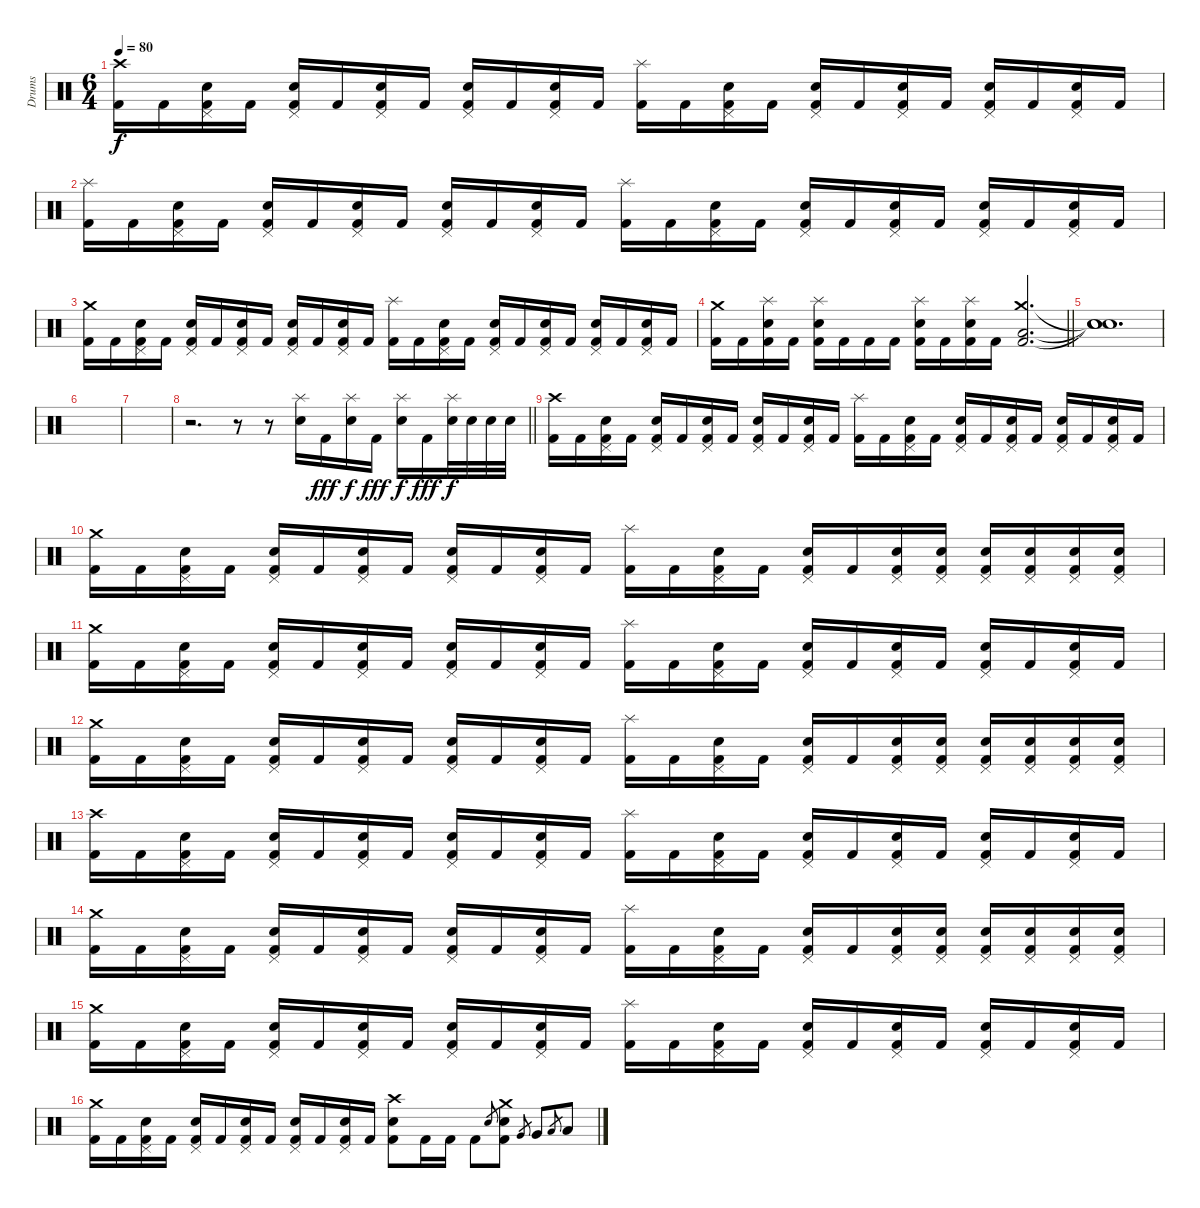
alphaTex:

\track ("Drums" "Drums") {instrument percussion}
\staff {score}
\articulation defaults
\ts (6 4)
\tempo 80
\clef neutral
\ks c
("Crash high (hit)" "Kick (hit) 2").16{dy f} "Kick (hit) 2".16 ("Pedal Hi-Hat (hit)" "Snare (hit) 2" "Kick (hit) 2").16 "Kick (hit) 2".16 ("Pedal Hi-Hat (hit)" "Snare (hit) 2" "Kick (hit) 2").16 "Kick (hit) 2".16 ("Pedal Hi-Hat (hit)" "Snare (hit) 2" "Kick (hit) 2").16 "Kick (hit) 2".16 ("Pedal Hi-Hat (hit)" "Snare (hit) 2" "Kick (hit) 2").16 "Kick (hit) 2".16 ("Pedal Hi-Hat (hit)" "Snare (hit) 2" "Kick (hit) 2").16 "Kick (hit) 2".16 ("Splash (hit)" "Kick (hit) 2").16 "Kick (hit) 2".16 ("Pedal Hi-Hat (hit)" "Snare (hit) 2" "Kick (hit) 2").16 "Kick (hit) 2".16 ("Pedal Hi-Hat (hit)" "Snare (hit) 2" "Kick (hit) 2").16 "Kick (hit) 2".16 ("Pedal Hi-Hat (hit)" "Snare (hit) 2" "Kick (hit) 2").16 "Kick (hit) 2".16 ("Pedal Hi-Hat (hit)" "Snare (hit) 2" "Kick (hit) 2").16 "Kick (hit) 2".16 ("Pedal Hi-Hat (hit)" "Snare (hit) 2" "Kick (hit) 2").16 "Kick (hit) 2".16 |
("Splash (hit)" "Kick (hit) 2").16 "Kick (hit) 2".16 ("Pedal Hi-Hat (hit)" "Snare (hit) 2" "Kick (hit) 2").16 "Kick (hit) 2".16 ("Pedal Hi-Hat (hit)" "Snare (hit) 2" "Kick (hit) 2").16 "Kick (hit) 2".16 ("Pedal Hi-Hat (hit)" "Snare (hit) 2" "Kick (hit) 2").16 "Kick (hit) 2".16 ("Pedal Hi-Hat (hit)" "Snare (hit) 2" "Kick (hit) 2").16 "Kick (hit) 2".16 ("Pedal Hi-Hat (hit)" "Snare (hit) 2" "Kick (hit) 2").16 "Kick (hit) 2".16 ("Splash (hit)" "Kick (hit) 2").16 "Kick (hit) 2".16 ("Pedal Hi-Hat (hit)" "Snare (hit) 2" "Kick (hit) 2").16 "Kick (hit) 2".16 ("Pedal Hi-Hat (hit)" "Snare (hit) 2" "Kick (hit) 2").16 "Kick (hit) 2".16 ("Pedal Hi-Hat (hit)" "Snare (hit) 2" "Kick (hit) 2").16 "Kick (hit) 2".16 ("Pedal Hi-Hat (hit)" "Snare (hit) 2" "Kick (hit) 2").16 "Kick (hit) 2".16 ("Pedal Hi-Hat (hit)" "Snare (hit) 2" "Kick (hit) 2").16 "Kick (hit) 2".16 |
("Crash medium (hit)" "Kick (hit) 2").16 "Kick (hit) 2".16 ("Pedal Hi-Hat (hit)" "Snare (hit) 2" "Kick (hit) 2").16 "Kick (hit) 2".16 ("Pedal Hi-Hat (hit)" "Snare (hit) 2" "Kick (hit) 2").16 "Kick (hit) 2".16 ("Pedal Hi-Hat (hit)" "Snare (hit) 2" "Kick (hit) 2").16 "Kick (hit) 2".16 ("Pedal Hi-Hat (hit)" "Snare (hit) 2" "Kick (hit) 2").16 "Kick (hit) 2".16 ("Pedal Hi-Hat (hit)" "Snare (hit) 2" "Kick (hit) 2").16 "Kick (hit) 2".16 ("Splash (hit)" "Kick (hit) 2").16 "Kick (hit) 2".16 ("Pedal Hi-Hat (hit)" "Snare (hit) 2" "Kick (hit) 2").16 "Kick (hit) 2".16 ("Pedal Hi-Hat (hit)" "Snare (hit) 2" "Kick (hit) 2").16 "Kick (hit) 2".16 ("Pedal Hi-Hat (hit)" "Snare (hit) 2" "Kick (hit) 2").16 "Kick (hit) 2".16 ("Pedal Hi-Hat (hit)" "Snare (hit) 2" "Kick (hit) 2").16 "Kick (hit) 2".16 ("Pedal Hi-Hat (hit)" "Snare (hit) 2" "Kick (hit) 2").16 "Kick (hit) 2".16 |
\barLineRight lightlight
("Crash medium (hit)" "Kick (hit) 2").16 "Kick (hit) 2".16 ("Splash (hit)" "Snare (hit) 2" "Kick (hit) 2").16 "Kick (hit) 2".16 ("Splash (hit)" "Snare (hit) 2" "Kick (hit) 2").16 "Kick (hit) 2".16 "Kick (hit) 2".16 "Kick (hit) 2".16 ("Splash (hit)" "Snare (hit) 2" "Kick (hit) 2").16 "Kick (hit) 2".16 ("Splash (hit)" "Snare (hit) 2" "Kick (hit) 2").16 "Kick (hit) 2".16 ("Crash medium (hit)" "Low Floor Tom (hit)" "Kick (hit) 2").2{d} |
\section ("" "")
("Snare (hit)"{t} "Snare (hit)"{t} "Snare (hit)"{t}).1{d} |
|
|
\barLineRight lightlight
r.2{d} r.8 r.8 ("Splash (hit)" "Snare (hit) 2").16 "Kick (hit) 2".16{dy fff} ("Splash (hit)" "Snare (hit) 2").16{dy f} "Kick (hit) 2".16{dy fff} ("Splash (hit)" "Snare (hit) 2").16{dy f} "Kick (hit) 2".16{dy fff} ("Splash (hit)" "Snare (hit) 2").32{dy f} "Snare (hit) 2".32 "Snare (hit) 2".32 "Snare (hit) 2".32 |
\section ("" "")
("Crash high (hit)" "Kick (hit) 2").16 "Kick (hit) 2".16 ("Pedal Hi-Hat (hit)" "Snare (hit) 2" "Kick (hit) 2").16 "Kick (hit) 2".16 ("Pedal Hi-Hat (hit)" "Snare (hit) 2" "Kick (hit) 2").16 "Kick (hit) 2".16 ("Pedal Hi-Hat (hit)" "Snare (hit) 2" "Kick (hit) 2").16 "Kick (hit) 2".16 ("Pedal Hi-Hat (hit)" "Snare (hit) 2" "Kick (hit) 2").16 "Kick (hit) 2".16 ("Pedal Hi-Hat (hit)" "Snare (hit) 2" "Kick (hit) 2").16 "Kick (hit) 2".16 ("Splash (hit)" "Kick (hit) 2").16 "Kick (hit) 2".16 ("Pedal Hi-Hat (hit)" "Snare (hit) 2" "Kick (hit) 2").16 "Kick (hit) 2".16 ("Pedal Hi-Hat (hit)" "Snare (hit) 2" "Kick (hit) 2").16 "Kick (hit) 2".16 ("Pedal Hi-Hat (hit)" "Snare (hit) 2" "Kick (hit) 2").16 "Kick (hit) 2".16 ("Pedal Hi-Hat (hit)" "Snare (hit) 2" "Kick (hit) 2").16 "Kick (hit) 2".16 ("Pedal Hi-Hat (hit)" "Snare (hit) 2" "Kick (hit) 2").16 "Kick (hit) 2".16 |
("Crash medium (hit)" "Kick (hit) 2").16 "Kick (hit) 2".16 ("Pedal Hi-Hat (hit)" "Snare (hit) 2" "Kick (hit) 2").16 "Kick (hit) 2".16 ("Pedal Hi-Hat (hit)" "Snare (hit) 2" "Kick (hit) 2").16 "Kick (hit) 2".16 ("Pedal Hi-Hat (hit)" "Snare (hit) 2" "Kick (hit) 2").16 "Kick (hit) 2".16 ("Pedal Hi-Hat (hit)" "Snare (hit) 2" "Kick (hit) 2").16 "Kick (hit) 2".16 ("Pedal Hi-Hat (hit)" "Snare (hit) 2" "Kick (hit) 2").16 "Kick (hit) 2".16 ("Splash (hit)" "Kick (hit) 2").16 "Kick (hit) 2".16 ("Pedal Hi-Hat (hit)" "Snare (hit) 2" "Kick (hit) 2").16 "Kick (hit) 2".16 ("Pedal Hi-Hat (hit)" "Snare (hit) 2" "Kick (hit) 2").16 "Kick (hit) 2".16 ("Pedal Hi-Hat (hit)" "Snare (hit) 2" "Kick (hit) 2").16 ("Pedal Hi-Hat (hit)" "Snare (hit) 2" "Kick (hit) 2").16 ("Pedal Hi-Hat (hit)" "Snare (hit) 2" "Kick (hit) 2").16 ("Pedal Hi-Hat (hit)" "Snare (hit) 2" "Kick (hit) 2").16 ("Pedal Hi-Hat (hit)" "Snare (hit) 2" "Kick (hit) 2").16 ("Pedal Hi-Hat (hit)" "Snare (hit) 2" "Kick (hit) 2").16 |
("Crash medium (hit)" "Kick (hit) 2").16 "Kick (hit) 2".16 ("Pedal Hi-Hat (hit)" "Snare (hit) 2" "Kick (hit) 2").16 "Kick (hit) 2".16 ("Pedal Hi-Hat (hit)" "Snare (hit) 2" "Kick (hit) 2").16 "Kick (hit) 2".16 ("Pedal Hi-Hat (hit)" "Snare (hit) 2" "Kick (hit) 2").16 "Kick (hit) 2".16 ("Pedal Hi-Hat (hit)" "Snare (hit) 2" "Kick (hit) 2").16 "Kick (hit) 2".16 ("Pedal Hi-Hat (hit)" "Snare (hit) 2" "Kick (hit) 2").16 "Kick (hit) 2".16 ("Splash (hit)" "Kick (hit) 2").16 "Kick (hit) 2".16 ("Pedal Hi-Hat (hit)" "Snare (hit) 2" "Kick (hit) 2").16 "Kick (hit) 2".16 ("Pedal Hi-Hat (hit)" "Snare (hit) 2" "Kick (hit) 2").16 "Kick (hit) 2".16 ("Pedal Hi-Hat (hit)" "Snare (hit) 2" "Kick (hit) 2").16 "Kick (hit) 2".16 ("Pedal Hi-Hat (hit)" "Snare (hit) 2" "Kick (hit) 2").16 "Kick (hit) 2".16 ("Pedal Hi-Hat (hit)" "Snare (hit) 2" "Kick (hit) 2").16 "Kick (hit) 2".16 |
("Crash medium (hit)" "Kick (hit) 2").16 "Kick (hit) 2".16 ("Pedal Hi-Hat (hit)" "Snare (hit) 2" "Kick (hit) 2").16 "Kick (hit) 2".16 ("Pedal Hi-Hat (hit)" "Snare (hit) 2" "Kick (hit) 2").16 "Kick (hit) 2".16 ("Pedal Hi-Hat (hit)" "Snare (hit) 2" "Kick (hit) 2").16 "Kick (hit) 2".16 ("Pedal Hi-Hat (hit)" "Snare (hit) 2" "Kick (hit) 2").16 "Kick (hit) 2".16 ("Pedal Hi-Hat (hit)" "Snare (hit) 2" "Kick (hit) 2").16 "Kick (hit) 2".16 ("Splash (hit)" "Kick (hit) 2").16 "Kick (hit) 2".16 ("Pedal Hi-Hat (hit)" "Snare (hit) 2" "Kick (hit) 2").16 "Kick (hit) 2".16 ("Pedal Hi-Hat (hit)" "Snare (hit) 2" "Kick (hit) 2").16 "Kick (hit) 2".16 ("Pedal Hi-Hat (hit)" "Snare (hit) 2" "Kick (hit) 2").16 ("Pedal Hi-Hat (hit)" "Snare (hit) 2" "Kick (hit) 2").16 ("Pedal Hi-Hat (hit)" "Snare (hit) 2" "Kick (hit) 2").16 ("Pedal Hi-Hat (hit)" "Snare (hit) 2" "Kick (hit) 2").16 ("Pedal Hi-Hat (hit)" "Snare (hit) 2" "Kick (hit) 2").16 ("Pedal Hi-Hat (hit)" "Snare (hit) 2" "Kick (hit) 2").16 |
("Crash high (hit)" "Kick (hit) 2").16 "Kick (hit) 2".16 ("Pedal Hi-Hat (hit)" "Snare (hit) 2" "Kick (hit) 2").16 "Kick (hit) 2".16 ("Pedal Hi-Hat (hit)" "Snare (hit) 2" "Kick (hit) 2").16 "Kick (hit) 2".16 ("Pedal Hi-Hat (hit)" "Snare (hit) 2" "Kick (hit) 2").16 "Kick (hit) 2".16 ("Pedal Hi-Hat (hit)" "Snare (hit) 2" "Kick (hit) 2").16 "Kick (hit) 2".16 ("Pedal Hi-Hat (hit)" "Snare (hit) 2" "Kick (hit) 2").16 "Kick (hit) 2".16 ("Splash (hit)" "Kick (hit) 2").16 "Kick (hit) 2".16 ("Pedal Hi-Hat (hit)" "Snare (hit) 2" "Kick (hit) 2").16 "Kick (hit) 2".16 ("Pedal Hi-Hat (hit)" "Snare (hit) 2" "Kick (hit) 2").16 "Kick (hit) 2".16 ("Pedal Hi-Hat (hit)" "Snare (hit) 2" "Kick (hit) 2").16 "Kick (hit) 2".16 ("Pedal Hi-Hat (hit)" "Snare (hit) 2" "Kick (hit) 2").16 "Kick (hit) 2".16 ("Pedal Hi-Hat (hit)" "Snare (hit) 2" "Kick (hit) 2").16 "Kick (hit) 2".16 |
("Crash medium (hit)" "Kick (hit) 2").16 "Kick (hit) 2".16 ("Pedal Hi-Hat (hit)" "Snare (hit) 2" "Kick (hit) 2").16 "Kick (hit) 2".16 ("Pedal Hi-Hat (hit)" "Snare (hit) 2" "Kick (hit) 2").16 "Kick (hit) 2".16 ("Pedal Hi-Hat (hit)" "Snare (hit) 2" "Kick (hit) 2").16 "Kick (hit) 2".16 ("Pedal Hi-Hat (hit)" "Snare (hit) 2" "Kick (hit) 2").16 "Kick (hit) 2".16 ("Pedal Hi-Hat (hit)" "Snare (hit) 2" "Kick (hit) 2").16 "Kick (hit) 2".16 ("Splash (hit)" "Kick (hit) 2").16 "Kick (hit) 2".16 ("Pedal Hi-Hat (hit)" "Snare (hit) 2" "Kick (hit) 2").16 "Kick (hit) 2".16 ("Pedal Hi-Hat (hit)" "Snare (hit) 2" "Kick (hit) 2").16 "Kick (hit) 2".16 ("Pedal Hi-Hat (hit)" "Snare (hit) 2" "Kick (hit) 2").16 ("Pedal Hi-Hat (hit)" "Snare (hit) 2" "Kick (hit) 2").16 ("Pedal Hi-Hat (hit)" "Snare (hit) 2" "Kick (hit) 2").16 ("Pedal Hi-Hat (hit)" "Snare (hit) 2" "Kick (hit) 2").16 ("Pedal Hi-Hat (hit)" "Snare (hit) 2" "Kick (hit) 2").16 ("Pedal Hi-Hat (hit)" "Snare (hit) 2" "Kick (hit) 2").16 |
("Crash medium (hit)" "Kick (hit) 2").16 "Kick (hit) 2".16 ("Pedal Hi-Hat (hit)" "Snare (hit) 2" "Kick (hit) 2").16 "Kick (hit) 2".16 ("Pedal Hi-Hat (hit)" "Snare (hit) 2" "Kick (hit) 2").16 "Kick (hit) 2".16 ("Pedal Hi-Hat (hit)" "Snare (hit) 2" "Kick (hit) 2").16 "Kick (hit) 2".16 ("Pedal Hi-Hat (hit)" "Snare (hit) 2" "Kick (hit) 2").16 "Kick (hit) 2".16 ("Pedal Hi-Hat (hit)" "Snare (hit) 2" "Kick (hit) 2").16 "Kick (hit) 2".16 ("Splash (hit)" "Kick (hit) 2").16 "Kick (hit) 2".16 ("Pedal Hi-Hat (hit)" "Snare (hit) 2" "Kick (hit) 2").16 "Kick (hit) 2".16 ("Pedal Hi-Hat (hit)" "Snare (hit) 2" "Kick (hit) 2").16 "Kick (hit) 2".16 ("Pedal Hi-Hat (hit)" "Snare (hit) 2" "Kick (hit) 2").16 "Kick (hit) 2".16 ("Pedal Hi-Hat (hit)" "Snare (hit) 2" "Kick (hit) 2").16 "Kick (hit) 2".16 ("Pedal Hi-Hat (hit)" "Snare (hit) 2" "Kick (hit) 2").16 "Kick (hit) 2".16 |
("Crash medium (hit)" "Kick (hit) 2").16 "Kick (hit) 2".16 ("Pedal Hi-Hat (hit)" "Snare (hit) 2" "Kick (hit) 2").16 "Kick (hit) 2".16 ("Pedal Hi-Hat (hit)" "Snare (hit) 2" "Kick (hit) 2").16 "Kick (hit) 2".16 ("Pedal Hi-Hat (hit)" "Snare (hit) 2" "Kick (hit) 2").16 "Kick (hit) 2".16 ("Pedal Hi-Hat (hit)" "Snare (hit) 2" "Kick (hit) 2").16 "Kick (hit) 2".16 ("Pedal Hi-Hat (hit)" "Snare (hit) 2" "Kick (hit) 2").16 "Kick (hit) 2".16 ("Crash high (hit)" "Snare (hit) 2" "Kick (hit) 2").8 "Kick (hit) 2".16 "Kick (hit) 2".16 "Kick (hit) 2".8 "Snare (hit) 2".8{gr} ("Crash medium (hit)" "Snare (hit) 2" "Kick (hit) 2").8 "Very Low Tom (hit)".8{gr} "Very Low Tom (hit)".8 "Low Floor Tom (hit)".8{gr} "Low Floor Tom (hit)".8
